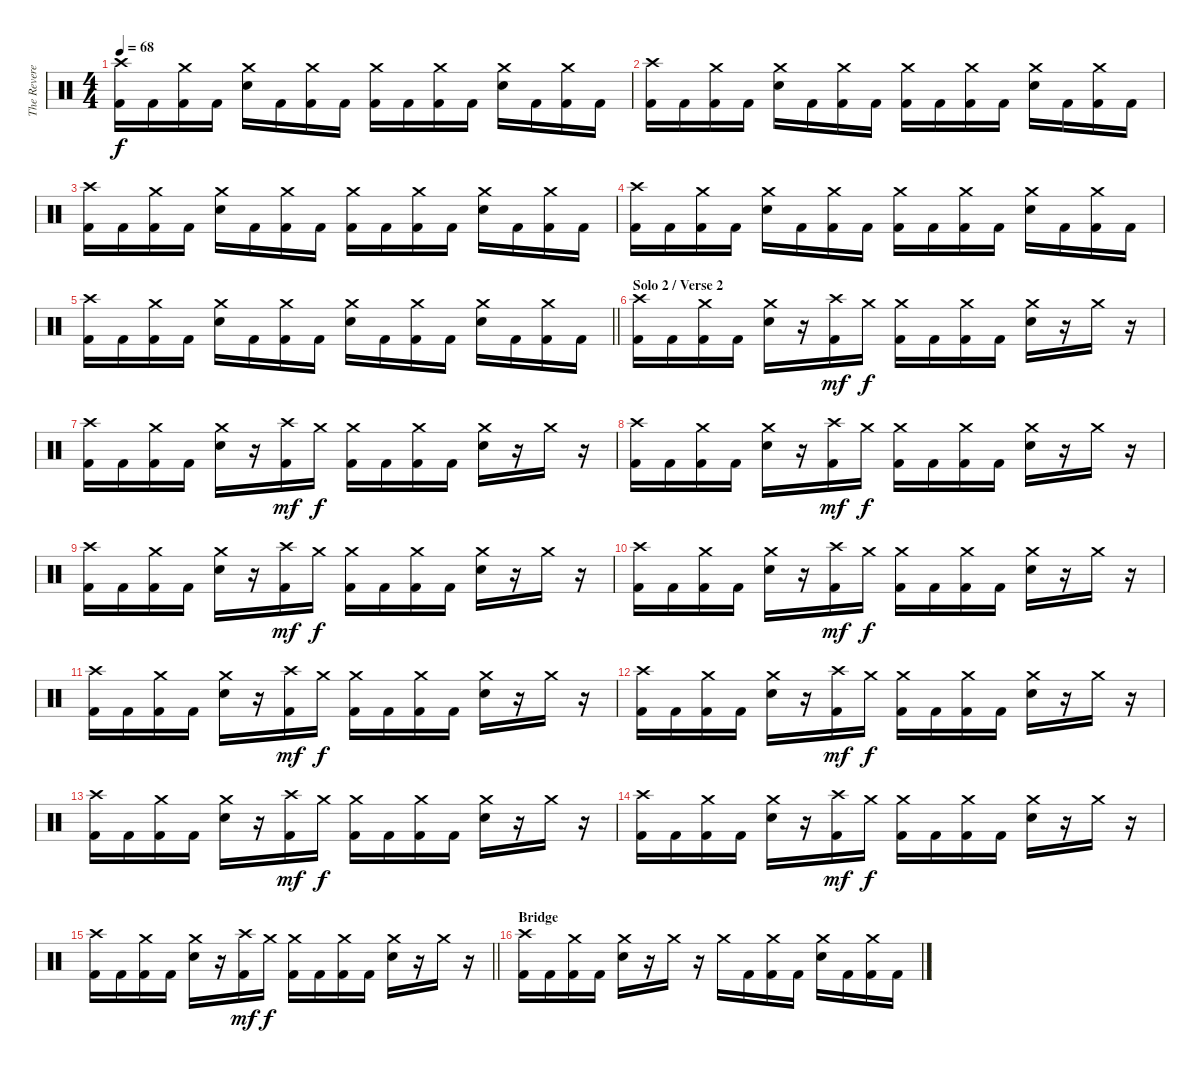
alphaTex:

\track ("The Reverend" "The Revere") {instrument percussion}
\staff {score}
\articulation defaults
\ts (4 4)
\tempo 68
\clef neutral
\ks c
("Crash high (hit)" "Kick (hit) 2").16{dy f} "Kick (hit) 2".16 ("Crash medium (hit)" "Kick (hit) 2").16 "Kick (hit) 2".16 ("Crash medium (hit)" "Electric Snare (hit)").16 "Kick (hit) 2".16 ("Crash medium (hit)" "Kick (hit) 2").16 "Kick (hit) 2".16 ("Crash medium (hit)" "Kick (hit) 2").16 "Kick (hit) 2".16 ("Crash medium (hit)" "Kick (hit) 2").16 "Kick (hit) 2".16 ("Crash medium (hit)" "Electric Snare (hit)").16 "Kick (hit) 2".16 ("Crash medium (hit)" "Kick (hit) 2").16 "Kick (hit) 2".16 |
("Crash high (hit)" "Kick (hit) 2").16 "Kick (hit) 2".16 ("Crash medium (hit)" "Kick (hit) 2").16 "Kick (hit) 2".16 ("Crash medium (hit)" "Electric Snare (hit)").16 "Kick (hit) 2".16 ("Crash medium (hit)" "Kick (hit) 2").16 "Kick (hit) 2".16 ("Crash medium (hit)" "Kick (hit) 2").16 "Kick (hit) 2".16 ("Crash medium (hit)" "Kick (hit) 2").16 "Kick (hit) 2".16 ("Crash medium (hit)" "Electric Snare (hit)").16 "Kick (hit) 2".16 ("Crash medium (hit)" "Kick (hit) 2").16 "Kick (hit) 2".16 |
("Crash high (hit)" "Kick (hit) 2").16 "Kick (hit) 2".16 ("Crash medium (hit)" "Kick (hit) 2").16 "Kick (hit) 2".16 ("Crash medium (hit)" "Electric Snare (hit)").16 "Kick (hit) 2".16 ("Crash medium (hit)" "Kick (hit) 2").16 "Kick (hit) 2".16 ("Crash medium (hit)" "Kick (hit) 2").16 "Kick (hit) 2".16 ("Crash medium (hit)" "Kick (hit) 2").16 "Kick (hit) 2".16 ("Crash medium (hit)" "Electric Snare (hit)").16 "Kick (hit) 2".16 ("Crash medium (hit)" "Kick (hit) 2").16 "Kick (hit) 2".16 |
("Crash high (hit)" "Kick (hit) 2").16 "Kick (hit) 2".16 ("Crash medium (hit)" "Kick (hit) 2").16 "Kick (hit) 2".16 ("Crash medium (hit)" "Electric Snare (hit)").16 "Kick (hit) 2".16 ("Crash medium (hit)" "Kick (hit) 2").16 "Kick (hit) 2".16 ("Crash medium (hit)" "Kick (hit) 2").16 "Kick (hit) 2".16 ("Crash medium (hit)" "Kick (hit) 2").16 "Kick (hit) 2".16 ("Crash medium (hit)" "Electric Snare (hit)").16 "Kick (hit) 2".16 ("Crash medium (hit)" "Kick (hit) 2").16 "Kick (hit) 2".16 |
\barLineRight lightlight
("Crash high (hit)" "Kick (hit) 2").16 "Kick (hit) 2".16 ("Crash medium (hit)" "Kick (hit) 2").16 "Kick (hit) 2".16 ("Crash medium (hit)" "Electric Snare (hit)").16 "Kick (hit) 2".16 ("Crash medium (hit)" "Kick (hit) 2").16 "Kick (hit) 2".16 ("Crash medium (hit)" "Electric Snare (hit)").16 "Kick (hit) 2".16 ("Crash medium (hit)" "Kick (hit) 2").16 "Kick (hit) 2".16 ("Crash medium (hit)" "Electric Snare (hit)").16 "Kick (hit) 2".16 ("Crash medium (hit)" "Kick (hit) 2").16 "Kick (hit) 2".16 |
\section ("" "Solo 2 / Verse 2")
("Crash high (hit)" "Kick (hit) 2").16 "Kick (hit) 2".16 ("Crash medium (hit)" "Kick (hit) 2").16 "Kick (hit) 2".16 ("Crash medium (hit)" "Electric Snare (hit)").16 r.16 ("Crash high (hit)" "Kick (hit) 2").16{dy mf} "Crash medium (hit)".16{dy f} ("Crash medium (hit)" "Kick (hit) 2").16 "Kick (hit) 2".16 ("Crash medium (hit)" "Kick (hit) 2").16 "Kick (hit) 2".16 ("Crash medium (hit)" "Electric Snare (hit)").16 r.16 "Crash medium (hit)".16 r.16 |
("Crash high (hit)" "Kick (hit) 2").16 "Kick (hit) 2".16 ("Crash medium (hit)" "Kick (hit) 2").16 "Kick (hit) 2".16 ("Crash medium (hit)" "Electric Snare (hit)").16 r.16 ("Crash high (hit)" "Kick (hit) 2").16{dy mf} "Crash medium (hit)".16{dy f} ("Crash medium (hit)" "Kick (hit) 2").16 "Kick (hit) 2".16 ("Crash medium (hit)" "Kick (hit) 2").16 "Kick (hit) 2".16 ("Crash medium (hit)" "Electric Snare (hit)").16 r.16 "Crash medium (hit)".16 r.16 |
("Crash high (hit)" "Kick (hit) 2").16 "Kick (hit) 2".16 ("Crash medium (hit)" "Kick (hit) 2").16 "Kick (hit) 2".16 ("Crash medium (hit)" "Electric Snare (hit)").16 r.16 ("Crash high (hit)" "Kick (hit) 2").16{dy mf} "Crash medium (hit)".16{dy f} ("Crash medium (hit)" "Kick (hit) 2").16 "Kick (hit) 2".16 ("Crash medium (hit)" "Kick (hit) 2").16 "Kick (hit) 2".16 ("Crash medium (hit)" "Electric Snare (hit)").16 r.16 "Crash medium (hit)".16 r.16 |
("Crash high (hit)" "Kick (hit) 2").16 "Kick (hit) 2".16 ("Crash medium (hit)" "Kick (hit) 2").16 "Kick (hit) 2".16 ("Crash medium (hit)" "Electric Snare (hit)").16 r.16 ("Crash high (hit)" "Kick (hit) 2").16{dy mf} "Crash medium (hit)".16{dy f} ("Crash medium (hit)" "Kick (hit) 2").16 "Kick (hit) 2".16 ("Crash medium (hit)" "Kick (hit) 2").16 "Kick (hit) 2".16 ("Crash medium (hit)" "Electric Snare (hit)").16 r.16 "Crash medium (hit)".16 r.16 |
("Crash high (hit)" "Kick (hit) 2").16 "Kick (hit) 2".16 ("Crash medium (hit)" "Kick (hit) 2").16 "Kick (hit) 2".16 ("Crash medium (hit)" "Electric Snare (hit)").16 r.16 ("Crash high (hit)" "Kick (hit) 2").16{dy mf} "Crash medium (hit)".16{dy f} ("Crash medium (hit)" "Kick (hit) 2").16 "Kick (hit) 2".16 ("Crash medium (hit)" "Kick (hit) 2").16 "Kick (hit) 2".16 ("Crash medium (hit)" "Electric Snare (hit)").16 r.16 "Crash medium (hit)".16 r.16 |
("Crash high (hit)" "Kick (hit) 2").16 "Kick (hit) 2".16 ("Crash medium (hit)" "Kick (hit) 2").16 "Kick (hit) 2".16 ("Crash medium (hit)" "Electric Snare (hit)").16 r.16 ("Crash high (hit)" "Kick (hit) 2").16{dy mf} "Crash medium (hit)".16{dy f} ("Crash medium (hit)" "Kick (hit) 2").16 "Kick (hit) 2".16 ("Crash medium (hit)" "Kick (hit) 2").16 "Kick (hit) 2".16 ("Crash medium (hit)" "Electric Snare (hit)").16 r.16 "Crash medium (hit)".16 r.16 |
("Crash high (hit)" "Kick (hit) 2").16 "Kick (hit) 2".16 ("Crash medium (hit)" "Kick (hit) 2").16 "Kick (hit) 2".16 ("Crash medium (hit)" "Electric Snare (hit)").16 r.16 ("Crash high (hit)" "Kick (hit) 2").16{dy mf} "Crash medium (hit)".16{dy f} ("Crash medium (hit)" "Kick (hit) 2").16 "Kick (hit) 2".16 ("Crash medium (hit)" "Kick (hit) 2").16 "Kick (hit) 2".16 ("Crash medium (hit)" "Electric Snare (hit)").16 r.16 "Crash medium (hit)".16 r.16 |
("Crash high (hit)" "Kick (hit) 2").16 "Kick (hit) 2".16 ("Crash medium (hit)" "Kick (hit) 2").16 "Kick (hit) 2".16 ("Crash medium (hit)" "Electric Snare (hit)").16 r.16 ("Crash high (hit)" "Kick (hit) 2").16{dy mf} "Crash medium (hit)".16{dy f} ("Crash medium (hit)" "Kick (hit) 2").16 "Kick (hit) 2".16 ("Crash medium (hit)" "Kick (hit) 2").16 "Kick (hit) 2".16 ("Crash medium (hit)" "Electric Snare (hit)").16 r.16 "Crash medium (hit)".16 r.16 |
("Crash high (hit)" "Kick (hit) 2").16 "Kick (hit) 2".16 ("Crash medium (hit)" "Kick (hit) 2").16 "Kick (hit) 2".16 ("Crash medium (hit)" "Electric Snare (hit)").16 r.16 ("Crash high (hit)" "Kick (hit) 2").16{dy mf} "Crash medium (hit)".16{dy f} ("Crash medium (hit)" "Kick (hit) 2").16 "Kick (hit) 2".16 ("Crash medium (hit)" "Kick (hit) 2").16 "Kick (hit) 2".16 ("Crash medium (hit)" "Electric Snare (hit)").16 r.16 "Crash medium (hit)".16 r.16 |
\barLineRight lightlight
("Crash high (hit)" "Kick (hit) 2").16 "Kick (hit) 2".16 ("Crash medium (hit)" "Kick (hit) 2").16 "Kick (hit) 2".16 ("Crash medium (hit)" "Electric Snare (hit)").16 r.16 ("Crash high (hit)" "Kick (hit) 2").16{dy mf} "Crash medium (hit)".16{dy f} ("Crash medium (hit)" "Kick (hit) 2").16 "Kick (hit) 2".16 ("Crash medium (hit)" "Kick (hit) 2").16 "Kick (hit) 2".16 ("Crash medium (hit)" "Electric Snare (hit)").16 r.16 "Crash medium (hit)".16 r.16 |
\section ("" "Bridge")
("Crash high (hit)" "Kick (hit) 2").16 "Kick (hit) 2".16 ("Crash medium (hit)" "Kick (hit) 2").16 "Kick (hit) 2".16 ("Crash medium (hit)" "Electric Snare (hit)").16 r.16 "Crash medium (hit)".16 r.16 "Crash medium (hit)".16 "Kick (hit) 2".16 ("Crash medium (hit)" "Kick (hit) 2").16 "Kick (hit) 2".16 ("Crash medium (hit)" "Electric Snare (hit)").16 "Kick (hit) 2".16 ("Crash medium (hit)" "Kick (hit) 2").16 "Kick (hit) 2".16
